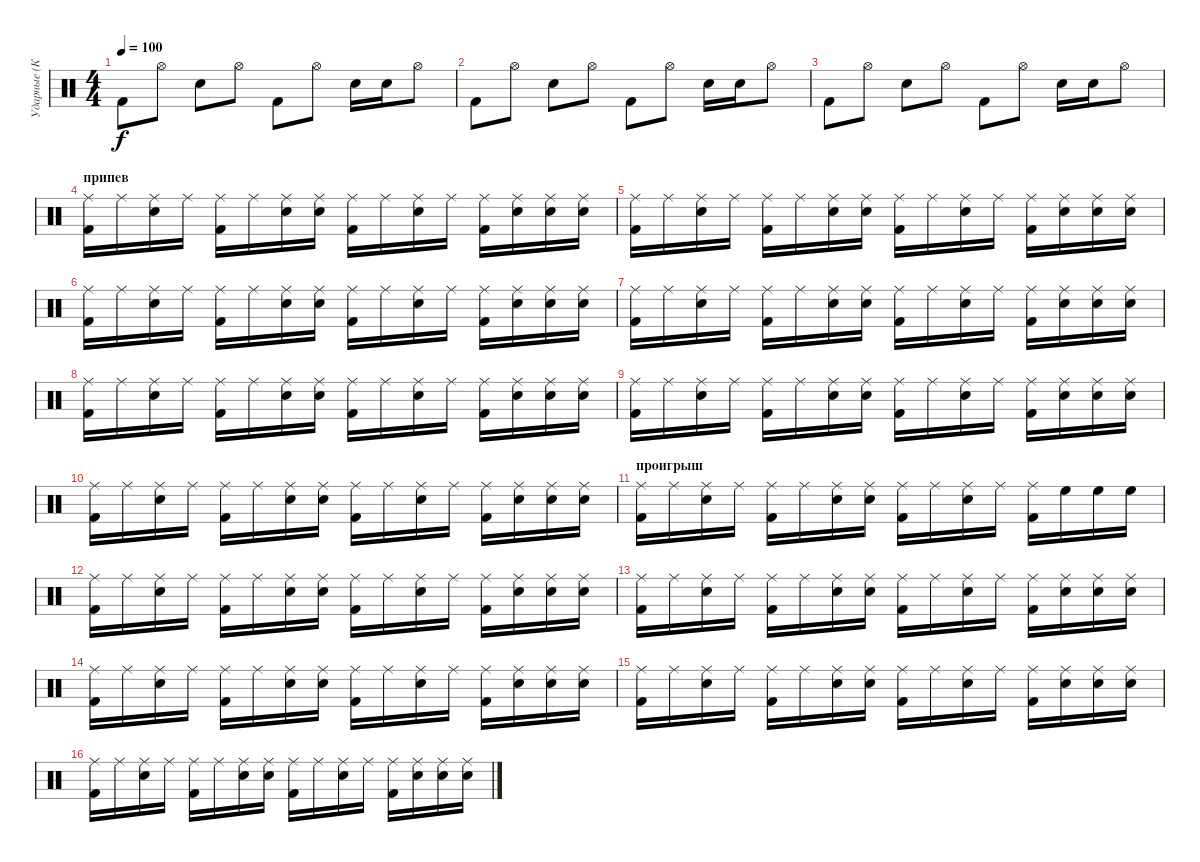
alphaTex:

\track ("Ударные (Котов)" "Ударные (К") {instrument percussion}
\staff {score}
\articulation defaults
\ts (4 4)
\tempo 100
\clef neutral
\ks c "Kick (hit) 2".8{dy f} "Hi-Hat (open)".8 "Snare (hit) 2".8 "Hi-Hat (open)".8 "Kick (hit) 2".8 "Hi-Hat (open)".8 "Snare (hit) 2".16 "Snare (hit) 2".16 "Hi-Hat (open)".8
|
"Kick (hit) 2".8 "Hi-Hat (open)".8 "Snare (hit) 2".8 "Hi-Hat (open)".8 "Kick (hit) 2".8 "Hi-Hat (open)".8 "Snare (hit) 2".16 "Snare (hit) 2".16 "Hi-Hat (open)".8 |
"Kick (hit) 2".8 "Hi-Hat (open)".8 "Snare (hit) 2".8 "Hi-Hat (open)".8 "Kick (hit) 2".8 "Hi-Hat (open)".8 "Snare (hit) 2".16 "Snare (hit) 2".16 "Hi-Hat (open)".8 |
\section ("" "припев")
("Ride (middle)" "Kick (hit) 2").16 "Ride (middle)".16 ("Ride (middle)" "Snare (hit) 2").16 "Ride (middle)".16 ("Ride (middle)" "Kick (hit) 2").16 "Ride (middle)".16 ("Ride (middle)" "Snare (hit) 2").16 ("Ride (middle)" "Snare (hit) 2").16 ("Ride (middle)" "Kick (hit) 2").16 "Ride (middle)".16 ("Ride (middle)" "Snare (hit) 2").16 "Ride (middle)".16 ("Ride (middle)" "Kick (hit) 2").16 ("Ride (middle)" "Snare (hit) 2").16 ("Ride (middle)" "Snare (hit) 2").16 ("Ride (middle)" "Snare (hit) 2").16 |
("Ride (middle)" "Kick (hit) 2").16 "Ride (middle)".16 ("Ride (middle)" "Snare (hit) 2").16 "Ride (middle)".16 ("Ride (middle)" "Kick (hit) 2").16 "Ride (middle)".16 ("Ride (middle)" "Snare (hit) 2").16 ("Ride (middle)" "Snare (hit) 2").16 ("Ride (middle)" "Kick (hit) 2").16 "Ride (middle)".16 ("Ride (middle)" "Snare (hit) 2").16 "Ride (middle)".16 ("Ride (middle)" "Kick (hit) 2").16 ("Ride (middle)" "Snare (hit) 2").16 ("Ride (middle)" "Snare (hit) 2").16 ("Ride (middle)" "Snare (hit) 2").16 |
("Ride (middle)" "Kick (hit) 2").16 "Ride (middle)".16 ("Ride (middle)" "Snare (hit) 2").16 "Ride (middle)".16 ("Ride (middle)" "Kick (hit) 2").16 "Ride (middle)".16 ("Ride (middle)" "Snare (hit) 2").16 ("Ride (middle)" "Snare (hit) 2").16 ("Ride (middle)" "Kick (hit) 2").16 "Ride (middle)".16 ("Ride (middle)" "Snare (hit) 2").16 "Ride (middle)".16 ("Ride (middle)" "Kick (hit) 2").16 ("Ride (middle)" "Snare (hit) 2").16 ("Ride (middle)" "Snare (hit) 2").16 ("Ride (middle)" "Snare (hit) 2").16 |
("Ride (middle)" "Kick (hit) 2").16 "Ride (middle)".16 ("Ride (middle)" "Snare (hit) 2").16 "Ride (middle)".16 ("Ride (middle)" "Kick (hit) 2").16 "Ride (middle)".16 ("Ride (middle)" "Snare (hit) 2").16 ("Ride (middle)" "Snare (hit) 2").16 ("Ride (middle)" "Kick (hit) 2").16 "Ride (middle)".16 ("Ride (middle)" "Snare (hit) 2").16 "Ride (middle)".16 ("Ride (middle)" "Kick (hit) 2").16 ("Ride (middle)" "Snare (hit) 2").16 ("Ride (middle)" "Snare (hit) 2").16 ("Ride (middle)" "Snare (hit) 2").16 |
("Ride (middle)" "Kick (hit) 2").16 "Ride (middle)".16 ("Ride (middle)" "Snare (hit) 2").16 "Ride (middle)".16 ("Ride (middle)" "Kick (hit) 2").16 "Ride (middle)".16 ("Ride (middle)" "Snare (hit) 2").16 ("Ride (middle)" "Snare (hit) 2").16 ("Ride (middle)" "Kick (hit) 2").16 "Ride (middle)".16 ("Ride (middle)" "Snare (hit) 2").16 "Ride (middle)".16 ("Ride (middle)" "Kick (hit) 2").16 ("Ride (middle)" "Snare (hit) 2").16 ("Ride (middle)" "Snare (hit) 2").16 ("Ride (middle)" "Snare (hit) 2").16 |
("Ride (middle)" "Kick (hit) 2").16 "Ride (middle)".16 ("Ride (middle)" "Snare (hit) 2").16 "Ride (middle)".16 ("Ride (middle)" "Kick (hit) 2").16 "Ride (middle)".16 ("Ride (middle)" "Snare (hit) 2").16 ("Ride (middle)" "Snare (hit) 2").16 ("Ride (middle)" "Kick (hit) 2").16 "Ride (middle)".16 ("Ride (middle)" "Snare (hit) 2").16 "Ride (middle)".16 ("Ride (middle)" "Kick (hit) 2").16 ("Ride (middle)" "Snare (hit) 2").16 ("Ride (middle)" "Snare (hit) 2").16 ("Ride (middle)" "Snare (hit) 2").16 |
("Ride (middle)" "Kick (hit) 2").16 "Ride (middle)".16 ("Ride (middle)" "Snare (hit) 2").16 "Ride (middle)".16 ("Ride (middle)" "Kick (hit) 2").16 "Ride (middle)".16 ("Ride (middle)" "Snare (hit) 2").16 ("Ride (middle)" "Snare (hit) 2").16 ("Ride (middle)" "Kick (hit) 2").16 "Ride (middle)".16 ("Ride (middle)" "Snare (hit) 2").16 "Ride (middle)".16 ("Ride (middle)" "Kick (hit) 2").16 ("Ride (middle)" "Snare (hit) 2").16 ("Ride (middle)" "Snare (hit) 2").16 ("Ride (middle)" "Snare (hit) 2").16 |
\section ("" "проигрыш")
("Ride (middle)" "Kick (hit) 2").16 "Ride (middle)".16 ("Ride (middle)" "Snare (hit) 2").16 "Ride (middle)".16 ("Ride (middle)" "Kick (hit) 2").16 "Ride (middle)".16 ("Ride (middle)" "Snare (hit) 2").16 ("Ride (middle)" "Snare (hit) 2").16 ("Ride (middle)" "Kick (hit) 2").16 "Ride (middle)".16 ("Ride (middle)" "Snare (hit) 2").16 "Ride (middle)".16 ("Ride (middle)" "Kick (hit) 2").16 "High Floor Tom (hit)".16 "High Floor Tom (hit)".16 "High Floor Tom (hit)".16 |
("Ride (middle)" "Kick (hit) 2").16 "Ride (middle)".16 ("Ride (middle)" "Snare (hit) 2").16 "Ride (middle)".16 ("Ride (middle)" "Kick (hit) 2").16 "Ride (middle)".16 ("Ride (middle)" "Snare (hit) 2").16 ("Ride (middle)" "Snare (hit) 2").16 ("Ride (middle)" "Kick (hit) 2").16 "Ride (middle)".16 ("Ride (middle)" "Snare (hit) 2").16 "Ride (middle)".16 ("Ride (middle)" "Kick (hit) 2").16 ("Ride (middle)" "Snare (hit) 2").16 ("Ride (middle)" "Snare (hit) 2").16 ("Ride (middle)" "Snare (hit) 2").16 |
("Ride (middle)" "Kick (hit) 2").16 "Ride (middle)".16 ("Ride (middle)" "Snare (hit) 2").16 "Ride (middle)".16 ("Ride (middle)" "Kick (hit) 2").16 "Ride (middle)".16 ("Ride (middle)" "Snare (hit) 2").16 ("Ride (middle)" "Snare (hit) 2").16 ("Ride (middle)" "Kick (hit) 2").16 "Ride (middle)".16 ("Ride (middle)" "Snare (hit) 2").16 "Ride (middle)".16 ("Ride (middle)" "Kick (hit) 2").16 ("Ride (middle)" "Snare (hit) 2").16 ("Ride (middle)" "Snare (hit) 2").16 ("Ride (middle)" "Snare (hit) 2").16 |
("Ride (middle)" "Kick (hit) 2").16 "Ride (middle)".16 ("Ride (middle)" "Snare (hit) 2").16 "Ride (middle)".16 ("Ride (middle)" "Kick (hit) 2").16 "Ride (middle)".16 ("Ride (middle)" "Snare (hit) 2").16 ("Ride (middle)" "Snare (hit) 2").16 ("Ride (middle)" "Kick (hit) 2").16 "Ride (middle)".16 ("Ride (middle)" "Snare (hit) 2").16 "Ride (middle)".16 ("Ride (middle)" "Kick (hit) 2").16 ("Ride (middle)" "Snare (hit) 2").16 ("Ride (middle)" "Snare (hit) 2").16 ("Ride (middle)" "Snare (hit) 2").16 |
("Ride (middle)" "Kick (hit) 2").16 "Ride (middle)".16 ("Ride (middle)" "Snare (hit) 2").16 "Ride (middle)".16 ("Ride (middle)" "Kick (hit) 2").16 "Ride (middle)".16 ("Ride (middle)" "Snare (hit) 2").16 ("Ride (middle)" "Snare (hit) 2").16 ("Ride (middle)" "Kick (hit) 2").16 "Ride (middle)".16 ("Ride (middle)" "Snare (hit) 2").16 "Ride (middle)".16 ("Ride (middle)" "Kick (hit) 2").16 ("Ride (middle)" "Snare (hit) 2").16 ("Ride (middle)" "Snare (hit) 2").16 ("Ride (middle)" "Snare (hit) 2").16 |
("Ride (middle)" "Kick (hit) 2").16 "Ride (middle)".16 ("Ride (middle)" "Snare (hit) 2").16 "Ride (middle)".16 ("Ride (middle)" "Kick (hit) 2").16 "Ride (middle)".16 ("Ride (middle)" "Snare (hit) 2").16 ("Ride (middle)" "Snare (hit) 2").16 ("Ride (middle)" "Kick (hit) 2").16 "Ride (middle)".16 ("Ride (middle)" "Snare (hit) 2").16 "Ride (middle)".16 ("Ride (middle)" "Kick (hit) 2").16 ("Ride (middle)" "Snare (hit) 2").16 ("Ride (middle)" "Snare (hit) 2").16 ("Ride (middle)" "Snare (hit) 2").16
